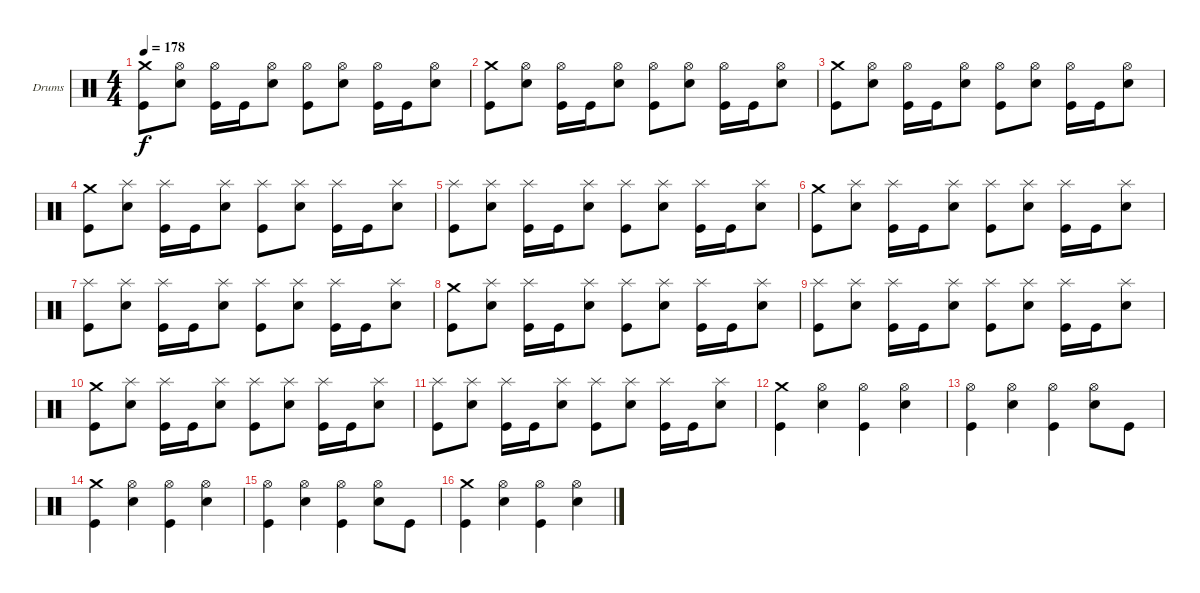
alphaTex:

\bracketExtendMode groupsimilarinstruments
\firstSystemTrackNameOrientation horizontal
\otherSystemsTrackNameOrientation horizontal
\track ("Drumkit" "Drums") {instrument percussion}
\staff {score}
\articulation defaults
\ts (4 4)
\tempo 178
\clef neutral
\ks c
("Crash medium (hit)" "Kick (hit)").8{dy f} ("Hi-Hat (open)" "Snare (hit) 2").8 ("Hi-Hat (open)" "Kick (hit)").16 "Kick (hit)".16 ("Hi-Hat (open)" "Snare (hit) 2").8 ("Hi-Hat (open)" "Kick (hit)").8 ("Hi-Hat (open)" "Snare (hit) 2").8 ("Hi-Hat (open)" "Kick (hit)").16 "Kick (hit)".16 ("Hi-Hat (open)" "Snare (hit) 2").8 |
("Crash medium (hit)" "Kick (hit)").8 ("Hi-Hat (open)" "Snare (hit) 2").8 ("Hi-Hat (open)" "Kick (hit)").16 "Kick (hit)".16 ("Hi-Hat (open)" "Snare (hit) 2").8 ("Hi-Hat (open)" "Kick (hit)").8 ("Hi-Hat (open)" "Snare (hit) 2").8 ("Hi-Hat (open)" "Kick (hit)").16 "Kick (hit)".16 ("Hi-Hat (open)" "Snare (hit) 2").8 |
("Crash medium (hit)" "Kick (hit)").8 ("Hi-Hat (open)" "Snare (hit) 2").8 ("Hi-Hat (open)" "Kick (hit)").16 "Kick (hit)".16 ("Hi-Hat (open)" "Snare (hit) 2").8 ("Hi-Hat (open)" "Kick (hit)").8 ("Hi-Hat (open)" "Snare (hit) 2").8 ("Hi-Hat (open)" "Kick (hit)").16 "Kick (hit)".16 ("Hi-Hat (open)" "Snare (hit) 2").8 |
("Crash medium (hit)" "Kick (hit)").8 ("Splash (hit)" "Snare (hit) 2").8 ("Splash (hit)" "Kick (hit)").16 "Kick (hit)".16 ("Splash (hit)" "Snare (hit) 2").8 ("Splash (hit)" "Kick (hit)").8 ("Splash (hit)" "Snare (hit) 2").8 ("Splash (hit)" "Kick (hit)").16 "Kick (hit)".16 ("Splash (hit)" "Snare (hit) 2").8 |
("Splash (hit)" "Kick (hit)").8 ("Splash (hit)" "Snare (hit) 2").8 ("Splash (hit)" "Kick (hit)").16 "Kick (hit)".16 ("Splash (hit)" "Snare (hit) 2").8 ("Splash (hit)" "Kick (hit)").8 ("Splash (hit)" "Snare (hit) 2").8 ("Splash (hit)" "Kick (hit)").16 "Kick (hit)".16 ("Splash (hit)" "Snare (hit) 2").8 |
("Crash medium (hit)" "Kick (hit)").8 ("Splash (hit)" "Snare (hit) 2").8 ("Splash (hit)" "Kick (hit)").16 "Kick (hit)".16 ("Splash (hit)" "Snare (hit) 2").8 ("Splash (hit)" "Kick (hit)").8 ("Splash (hit)" "Snare (hit) 2").8 ("Splash (hit)" "Kick (hit)").16 "Kick (hit)".16 ("Splash (hit)" "Snare (hit) 2").8 |
("Splash (hit)" "Kick (hit)").8 ("Splash (hit)" "Snare (hit) 2").8 ("Splash (hit)" "Kick (hit)").16 "Kick (hit)".16 ("Splash (hit)" "Snare (hit) 2").8 ("Splash (hit)" "Kick (hit)").8 ("Splash (hit)" "Snare (hit) 2").8 ("Splash (hit)" "Kick (hit)").16 "Kick (hit)".16 ("Splash (hit)" "Snare (hit) 2").8 |
("Crash medium (hit)" "Kick (hit)").8 ("Splash (hit)" "Snare (hit) 2").8 ("Splash (hit)" "Kick (hit)").16 "Kick (hit)".16 ("Splash (hit)" "Snare (hit) 2").8 ("Splash (hit)" "Kick (hit)").8 ("Splash (hit)" "Snare (hit) 2").8 ("Splash (hit)" "Kick (hit)").16 "Kick (hit)".16 ("Splash (hit)" "Snare (hit) 2").8 |
("Splash (hit)" "Kick (hit)").8 ("Splash (hit)" "Snare (hit) 2").8 ("Splash (hit)" "Kick (hit)").16 "Kick (hit)".16 ("Splash (hit)" "Snare (hit) 2").8 ("Splash (hit)" "Kick (hit)").8 ("Splash (hit)" "Snare (hit) 2").8 ("Splash (hit)" "Kick (hit)").16 "Kick (hit)".16 ("Splash (hit)" "Snare (hit) 2").8 |
("Crash medium (hit)" "Kick (hit)").8 ("Splash (hit)" "Snare (hit) 2").8 ("Splash (hit)" "Kick (hit)").16 "Kick (hit)".16 ("Splash (hit)" "Snare (hit) 2").8 ("Splash (hit)" "Kick (hit)").8 ("Splash (hit)" "Snare (hit) 2").8 ("Splash (hit)" "Kick (hit)").16 "Kick (hit)".16 ("Splash (hit)" "Snare (hit) 2").8 |
("Splash (hit)" "Kick (hit)").8 ("Splash (hit)" "Snare (hit) 2").8 ("Splash (hit)" "Kick (hit)").16 "Kick (hit)".16 ("Splash (hit)" "Snare (hit) 2").8 ("Splash (hit)" "Kick (hit)").8 ("Splash (hit)" "Snare (hit) 2").8 ("Splash (hit)" "Kick (hit)").16 "Kick (hit)".16 ("Splash (hit)" "Snare (hit) 2").8 |
("Crash medium (hit)" "Kick (hit)").4 ("Hi-Hat (open)" "Snare (hit) 2").4 ("Hi-Hat (open)" "Kick (hit)").4 ("Hi-Hat (open)" "Snare (hit) 2").4 |
("Hi-Hat (open)" "Kick (hit)").4 ("Hi-Hat (open)" "Snare (hit) 2").4 ("Hi-Hat (open)" "Kick (hit)").4 ("Hi-Hat (open)" "Snare (hit) 2").8 "Kick (hit)".8 |
("Crash medium (hit)" "Kick (hit)").4 ("Hi-Hat (open)" "Snare (hit) 2").4 ("Hi-Hat (open)" "Kick (hit)").4 ("Hi-Hat (open)" "Snare (hit) 2").4 |
("Hi-Hat (open)" "Kick (hit)").4 ("Hi-Hat (open)" "Snare (hit) 2").4 ("Hi-Hat (open)" "Kick (hit)").4 ("Hi-Hat (open)" "Snare (hit) 2").8 "Kick (hit)".8 |
("Crash medium (hit)" "Kick (hit)").4 ("Hi-Hat (open)" "Snare (hit) 2").4 ("Hi-Hat (open)" "Kick (hit)").4 ("Hi-Hat (open)" "Snare (hit) 2").4
